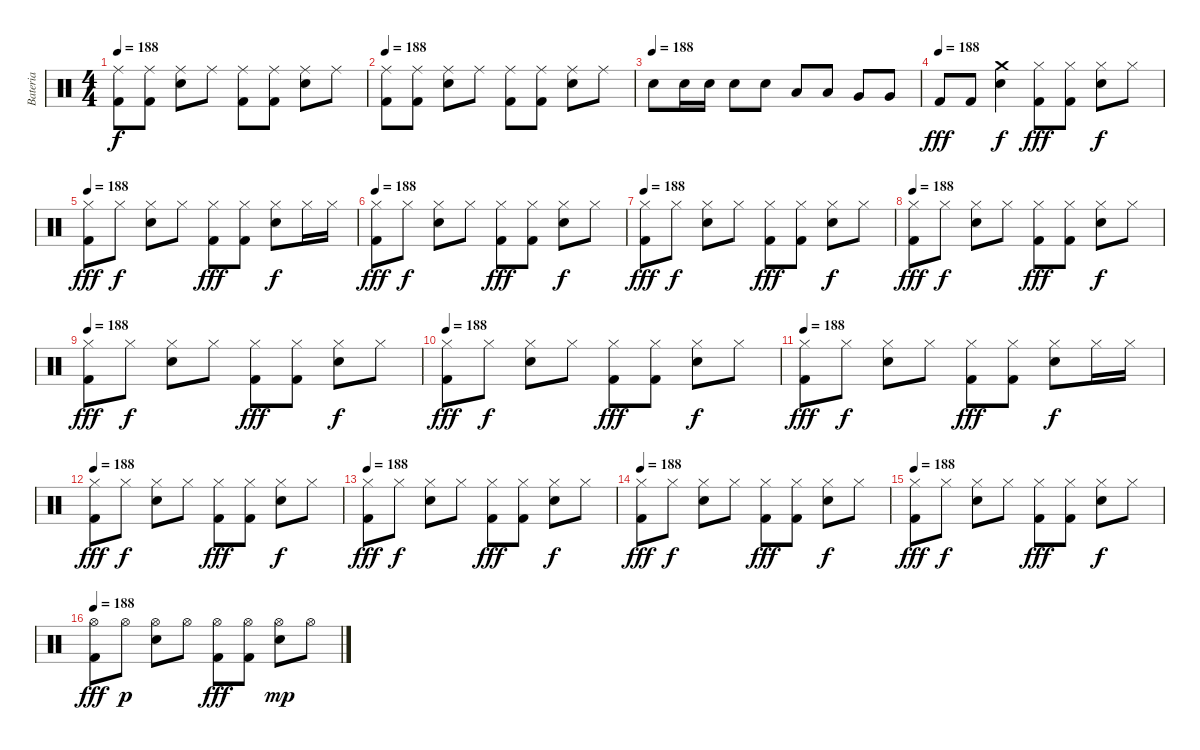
\track ("Bateria" "Bateria") {instrument percussion}
\staff {score}
\articulation defaults
\ts (4 4)
\tempo 188
\clef neutral
\ks c
("Ride (middle)" "Kick (hit) 2").8{dy f} ("Ride (middle)" "Kick (hit) 2").8 ("Ride (middle)" "Electric Snare (hit)").8 "Ride (middle)".8 ("Ride (middle)" "Kick (hit) 2").8 ("Ride (middle)" "Kick (hit) 2").8 ("Ride (middle)" "Electric Snare (hit)").8 "Ride (middle)".8 |
\tempo 188
("Ride (middle)" "Kick (hit) 2").8 ("Ride (middle)" "Kick (hit) 2").8 ("Ride (middle)" "Electric Snare (hit)").8 "Ride (middle)".8 ("Ride (middle)" "Kick (hit) 2").8 ("Ride (middle)" "Kick (hit) 2").8 ("Ride (middle)" "Electric Snare (hit)").8 "Ride (middle)".8 |
\tempo (188)
"Electric Snare (hit)".8 "Electric Snare (hit)".16 "Electric Snare (hit)".16 "Electric Snare (hit)".8 "Electric Snare (hit)".8 "Low Tom (hit)".8 "Low Tom (hit)".8 "Very Low Tom (hit)".8 "Very Low Tom (hit)".8 |
\tempo (188)
"Kick (hit) 2".8{dy fff} "Kick (hit) 2".8 ("Crash medium (hit)" "Electric Snare (hit)").4{dy f} ("Hi-Hat (closed)" "Kick (hit) 2").8{dy fff} ("Hi-Hat (closed)" "Kick (hit) 2").8 ("Hi-Hat (closed)" "Electric Snare (hit)").8{dy f} "Hi-Hat (closed)".8 |
\tempo 188
("Hi-Hat (closed)" "Kick (hit) 2").8{dy fff} "Hi-Hat (closed)".8{dy f} ("Hi-Hat (closed)" "Electric Snare (hit)").8 "Hi-Hat (closed)".8 ("Hi-Hat (closed)" "Kick (hit) 2").8{dy fff} ("Hi-Hat (closed)" "Kick (hit) 2").8 ("Hi-Hat (closed)" "Electric Snare (hit)").8{dy f} "Hi-Hat (closed)".16 "Hi-Hat (closed)".16 |
\tempo 188
("Hi-Hat (closed)" "Kick (hit) 2").8{dy fff} "Hi-Hat (closed)".8{dy f} ("Hi-Hat (closed)" "Electric Snare (hit)").8 "Hi-Hat (closed)".8 ("Hi-Hat (closed)" "Kick (hit) 2").8{dy fff} ("Hi-Hat (closed)" "Kick (hit) 2").8 ("Hi-Hat (closed)" "Electric Snare (hit)").8{dy f} "Hi-Hat (closed)".8 |
\tempo 188
("Hi-Hat (closed)" "Kick (hit) 2").8{dy fff} "Hi-Hat (closed)".8{dy f} ("Hi-Hat (closed)" "Electric Snare (hit)").8 "Hi-Hat (closed)".8 ("Hi-Hat (closed)" "Kick (hit) 2").8{dy fff} ("Hi-Hat (closed)" "Kick (hit) 2").8 ("Hi-Hat (closed)" "Electric Snare (hit)").8{dy f} "Hi-Hat (closed)".8 |
\tempo 188
("Hi-Hat (closed)" "Kick (hit) 2").8{dy fff} "Hi-Hat (closed)".8{dy f} ("Hi-Hat (closed)" "Electric Snare (hit)").8 "Hi-Hat (closed)".8 ("Hi-Hat (closed)" "Kick (hit) 2").8{dy fff} ("Hi-Hat (closed)" "Kick (hit) 2").8 ("Hi-Hat (closed)" "Electric Snare (hit)").8{dy f} "Hi-Hat (closed)".8 |
\tempo 188
("Hi-Hat (closed)" "Kick (hit) 2").8{dy fff} "Hi-Hat (closed)".8{dy f} ("Hi-Hat (closed)" "Electric Snare (hit)").8 "Hi-Hat (closed)".8 ("Hi-Hat (closed)" "Kick (hit) 2").8{dy fff} ("Hi-Hat (closed)" "Kick (hit) 2").8 ("Hi-Hat (closed)" "Electric Snare (hit)").8{dy f} "Hi-Hat (closed)".8 |
\tempo 188
("Hi-Hat (closed)" "Kick (hit) 2").8{dy fff} "Hi-Hat (closed)".8{dy f} ("Hi-Hat (closed)" "Electric Snare (hit)").8 "Hi-Hat (closed)".8 ("Hi-Hat (closed)" "Kick (hit) 2").8{dy fff} ("Hi-Hat (closed)" "Kick (hit) 2").8 ("Hi-Hat (closed)" "Electric Snare (hit)").8{dy f} "Hi-Hat (closed)".8 |
\tempo 188
("Hi-Hat (closed)" "Kick (hit) 2").8{dy fff} "Hi-Hat (closed)".8{dy f} ("Hi-Hat (closed)" "Electric Snare (hit)").8 "Hi-Hat (closed)".8 ("Hi-Hat (closed)" "Kick (hit) 2").8{dy fff} ("Hi-Hat (closed)" "Kick (hit) 2").8 ("Hi-Hat (closed)" "Electric Snare (hit)").8{dy f} "Hi-Hat (closed)".16 "Hi-Hat (closed)".16 |
\tempo 188
("Hi-Hat (closed)" "Kick (hit) 2").8{dy fff} "Hi-Hat (closed)".8{dy f} ("Hi-Hat (closed)" "Electric Snare (hit)").8 "Hi-Hat (closed)".8 ("Hi-Hat (closed)" "Kick (hit) 2").8{dy fff} ("Hi-Hat (closed)" "Kick (hit) 2").8 ("Hi-Hat (closed)" "Electric Snare (hit)").8{dy f} "Hi-Hat (closed)".8 |
\tempo 188
("Hi-Hat (closed)" "Kick (hit) 2").8{dy fff} "Hi-Hat (closed)".8{dy f} ("Hi-Hat (closed)" "Electric Snare (hit)").8 "Hi-Hat (closed)".8 ("Hi-Hat (closed)" "Kick (hit) 2").8{dy fff} ("Hi-Hat (closed)" "Kick (hit) 2").8 ("Hi-Hat (closed)" "Electric Snare (hit)").8{dy f} "Hi-Hat (closed)".8 |
\tempo 188
("Hi-Hat (closed)" "Kick (hit) 2").8{dy fff} "Hi-Hat (closed)".8{dy f} ("Hi-Hat (closed)" "Electric Snare (hit)").8 "Hi-Hat (closed)".8 ("Hi-Hat (closed)" "Kick (hit) 2").8{dy fff} ("Hi-Hat (closed)" "Kick (hit) 2").8 ("Hi-Hat (closed)" "Electric Snare (hit)").8{dy f} "Hi-Hat (closed)".8 |
\tempo 188
("Hi-Hat (closed)" "Kick (hit) 2").8{dy fff} "Hi-Hat (closed)".8{dy f} ("Hi-Hat (closed)" "Electric Snare (hit)").8 "Hi-Hat (closed)".8 ("Hi-Hat (closed)" "Kick (hit) 2").8{dy fff} ("Hi-Hat (closed)" "Kick (hit) 2").8 ("Hi-Hat (closed)" "Electric Snare (hit)").8{dy f} "Hi-Hat (closed)".8 |
\tempo 188
("Hi-Hat (open)" "Kick (hit) 2").8{dy fff} "Hi-Hat (open)".8{dy p} ("Hi-Hat (open)" "Electric Snare (hit)").8 "Hi-Hat (open)".8 ("Hi-Hat (open)" "Kick (hit) 2").8{dy fff} ("Hi-Hat (open)" "Kick (hit) 2").8 ("Hi-Hat (open)" "Electric Snare (hit)").8{dy mp} "Hi-Hat (open)".8
